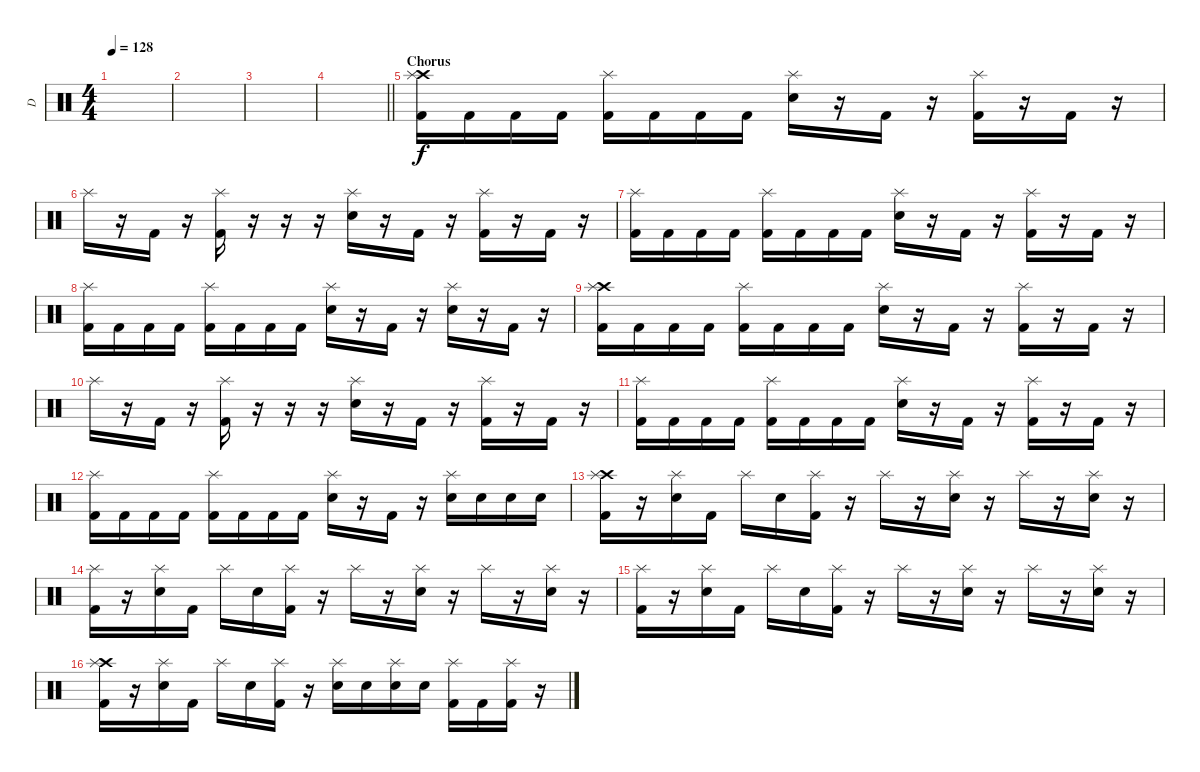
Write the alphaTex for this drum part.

\track ("D" "D") {instrument percussion}
\staff {score}
\articulation defaults
\ts (4 4)
\tempo 128
\clef neutral
\ks c
|
|
|
\barLineRight lightlight
|
\section ("" "Chorus")
("Crash high (hit)" "Kick (hit) 2" "Splash (hit)").16 "Kick (hit) 2".16 "Kick (hit) 2".16 "Kick (hit) 2".16 ("Kick (hit) 2" "Splash (hit)").16 "Kick (hit) 2".16 "Kick (hit) 2".16 "Kick (hit) 2".16 ("Electric Snare (hit)" "Splash (hit)").16 r.16 "Kick (hit) 2".16 r.16 ("Kick (hit) 2" "Splash (hit)").16 r.16 "Kick (hit) 2".16 r.16 |
"Splash (hit)".16 r.16 "Kick (hit) 2".16 r.16 ("Kick (hit) 2" "Splash (hit)").16 r.16 r.16 r.16 ("Electric Snare (hit)" "Splash (hit)").16 r.16 "Kick (hit) 2".16 r.16 ("Kick (hit) 2" "Splash (hit)").16 r.16 "Kick (hit) 2".16 r.16 |
("Kick (hit) 2" "Splash (hit)").16 "Kick (hit) 2".16 "Kick (hit) 2".16 "Kick (hit) 2".16 ("Kick (hit) 2" "Splash (hit)").16 "Kick (hit) 2".16 "Kick (hit) 2".16 "Kick (hit) 2".16 ("Electric Snare (hit)" "Splash (hit)").16 r.16 "Kick (hit) 2".16 r.16 ("Kick (hit) 2" "Splash (hit)").16 r.16 "Kick (hit) 2".16 r.16 |
("Kick (hit) 2" "Splash (hit)").16 "Kick (hit) 2".16 "Kick (hit) 2".16 "Kick (hit) 2".16 ("Kick (hit) 2" "Splash (hit)").16 "Kick (hit) 2".16 "Kick (hit) 2".16 "Kick (hit) 2".16 ("Electric Snare (hit)" "Splash (hit)").16 r.16 "Kick (hit) 2".16 r.16 ("Electric Snare (hit)" "Splash (hit)").16 r.16 "Kick (hit) 2".16 r.16 |
("Crash high (hit)" "Kick (hit) 2" "Splash (hit)").16 "Kick (hit) 2".16 "Kick (hit) 2".16 "Kick (hit) 2".16 ("Kick (hit) 2" "Splash (hit)").16 "Kick (hit) 2".16 "Kick (hit) 2".16 "Kick (hit) 2".16 ("Electric Snare (hit)" "Splash (hit)").16 r.16 "Kick (hit) 2".16 r.16 ("Kick (hit) 2" "Splash (hit)").16 r.16 "Kick (hit) 2".16 r.16 |
"Splash (hit)".16 r.16 "Kick (hit) 2".16 r.16 ("Kick (hit) 2" "Splash (hit)").16 r.16 r.16 r.16 ("Electric Snare (hit)" "Splash (hit)").16 r.16 "Kick (hit) 2".16 r.16 ("Kick (hit) 2" "Splash (hit)").16 r.16 "Kick (hit) 2".16 r.16 |
("Kick (hit) 2" "Splash (hit)").16 "Kick (hit) 2".16 "Kick (hit) 2".16 "Kick (hit) 2".16 ("Kick (hit) 2" "Splash (hit)").16 "Kick (hit) 2".16 "Kick (hit) 2".16 "Kick (hit) 2".16 ("Electric Snare (hit)" "Splash (hit)").16 r.16 "Kick (hit) 2".16 r.16 ("Kick (hit) 2" "Splash (hit)").16 r.16 "Kick (hit) 2".16 r.16 |
("Kick (hit) 2" "Splash (hit)").16 "Kick (hit) 2".16 "Kick (hit) 2".16 "Kick (hit) 2".16 ("Kick (hit) 2" "Splash (hit)").16 "Kick (hit) 2".16 "Kick (hit) 2".16 "Kick (hit) 2".16 ("Electric Snare (hit)" "Splash (hit)").16 r.16 "Kick (hit) 2".16 r.16 ("Electric Snare (hit)" "Splash (hit)").16 "Electric Snare (hit)".16 "Electric Snare (hit)".16 "Electric Snare (hit)".16 |
("Crash high (hit)" "Kick (hit) 2" "Splash (hit)").16 r.16 ("Electric Snare (hit)" "Splash (hit)").16 "Kick (hit) 2".16 "Splash (hit)".16 "Electric Snare (hit)".16 ("Kick (hit) 2" "Splash (hit)").16 r.16 "Splash (hit)".16 r.16 ("Electric Snare (hit)" "Splash (hit)").16 r.16 "Splash (hit)".16 r.16 ("Electric Snare (hit)" "Splash (hit)").16 r.16 |
("Kick (hit) 2" "Splash (hit)").16 r.16 ("Electric Snare (hit)" "Splash (hit)").16 "Kick (hit) 2".16 "Splash (hit)".16 "Electric Snare (hit)".16 ("Kick (hit) 2" "Splash (hit)").16 r.16 "Splash (hit)".16 r.16 ("Electric Snare (hit)" "Splash (hit)").16 r.16 "Splash (hit)".16 r.16 ("Electric Snare (hit)" "Splash (hit)").16 r.16 |
("Kick (hit) 2" "Splash (hit)").16 r.16 ("Electric Snare (hit)" "Splash (hit)").16 "Kick (hit) 2".16 "Splash (hit)".16 "Electric Snare (hit)".16 ("Kick (hit) 2" "Splash (hit)").16 r.16 "Splash (hit)".16 r.16 ("Electric Snare (hit)" "Splash (hit)").16 r.16 "Splash (hit)".16 r.16 ("Electric Snare (hit)" "Splash (hit)").16 r.16 |
("Crash high (hit)" "Kick (hit) 2" "Splash (hit)").16 r.16 ("Electric Snare (hit)" "Splash (hit)").16 "Kick (hit) 2".16 "Splash (hit)".16 "Electric Snare (hit)".16 ("Kick (hit) 2" "Splash (hit)").16 r.16 ("Electric Snare (hit)" "Splash (hit)").16 "Electric Snare (hit)".16 ("Electric Snare (hit)" "Splash (hit)").16 "Electric Snare (hit)".16 ("Kick (hit) 2" "Splash (hit)").16 "Kick (hit) 2".16 ("Kick (hit) 2" "Splash (hit)").16 r.16
